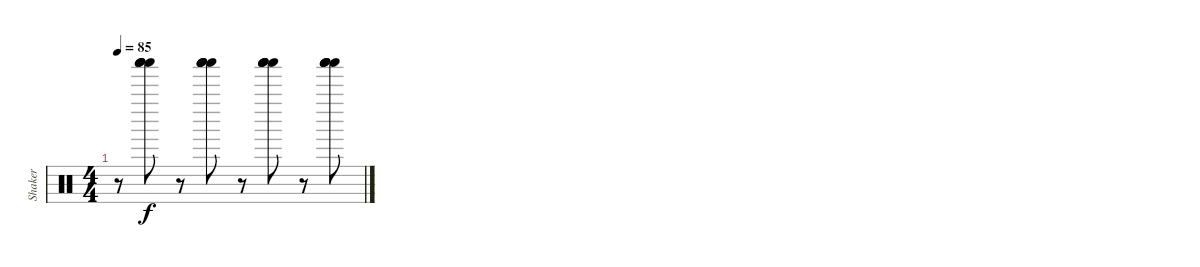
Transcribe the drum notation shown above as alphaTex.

\track ("Shaker" "Shaker") {instrument percussion}
\staff {score}
\articulation defaults
\ts (4 4)
\tempo 85
\clef neutral
\ks c
r.8{dy f} ("Shaker (hit)" "Shaker (hit)" "Shaker (hit)" "Shaker (hit)").8 r.8 ("Shaker (hit)" "Shaker (hit)" "Shaker (hit)" "Shaker (hit)").8 r.8 ("Shaker (hit)" "Shaker (hit)" "Shaker (hit)" "Shaker (hit)").8 r.8 ("Shaker (hit)" "Shaker (hit)" "Shaker (hit)" "Shaker (hit)").8
